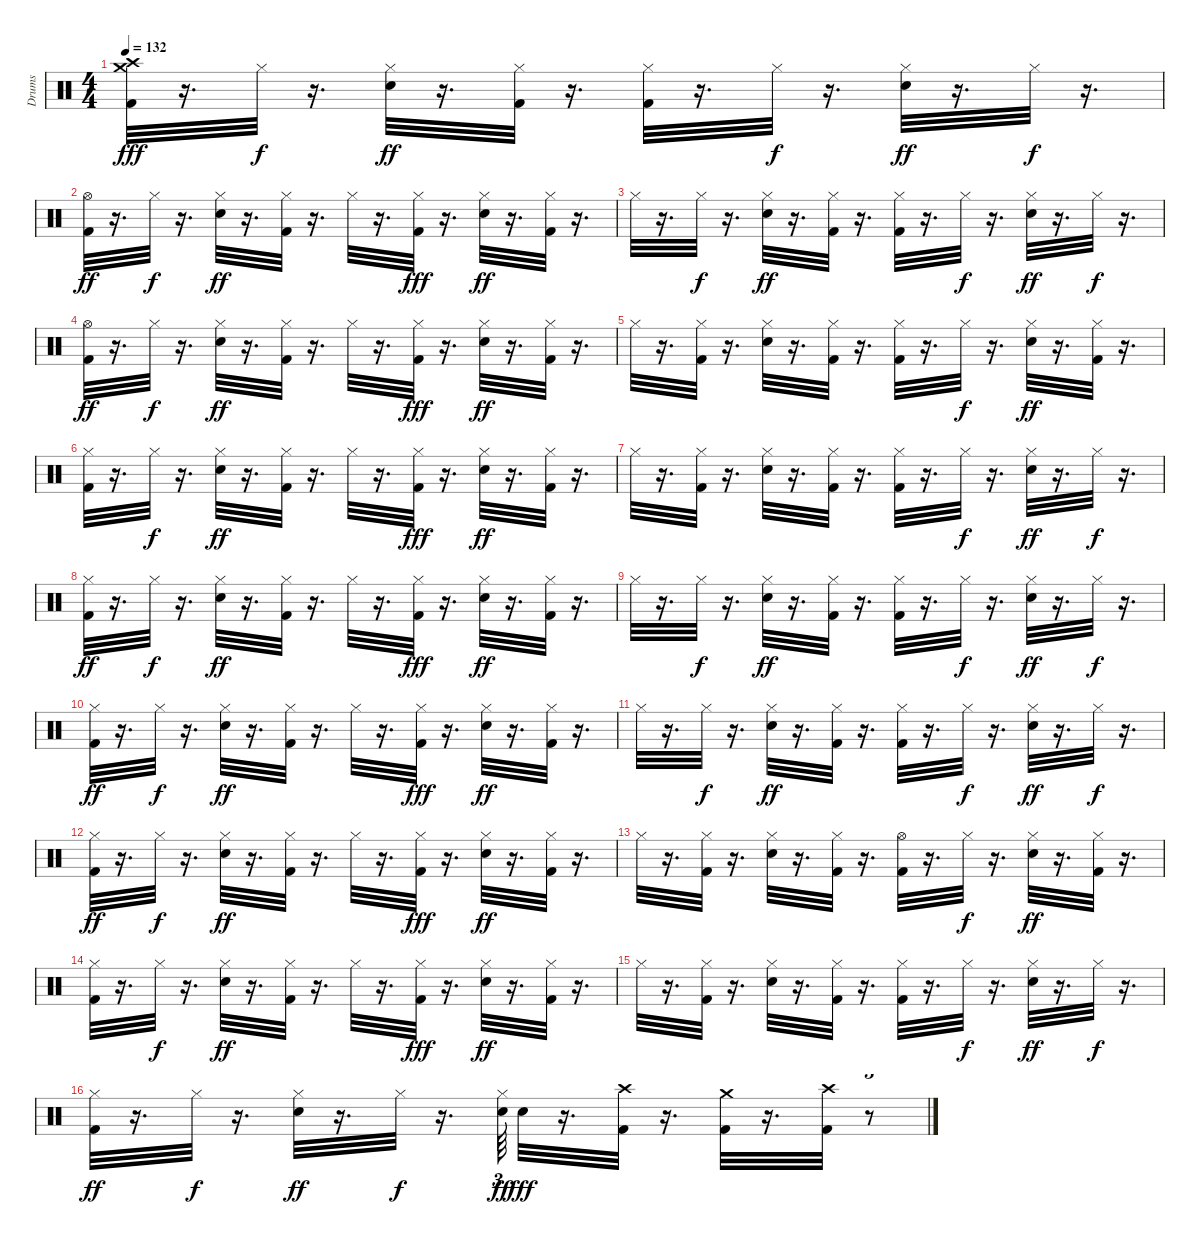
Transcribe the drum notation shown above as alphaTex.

\track ("Drums" "Drums") {instrument percussion}
\staff {score}
\articulation defaults
\ts (4 4)
\tempo 132
\clef neutral
\ks c
("Kick (hit) 2" "Crash high (hit)" "Crash medium (hit)").32{dy fff} r.16{d} "Hi-Hat (closed)".32{dy f} r.16{d} ("Snare (hit) 2" "Hi-Hat (closed)").32{dy ff} r.16{d} ("Kick (hit) 2" "Hi-Hat (closed)").32 r.16{d} ("Kick (hit) 2" "Hi-Hat (closed)").32 r.16{d} "Hi-Hat (closed)".32{dy f} r.16{d} ("Snare (hit) 2" "Hi-Hat (closed)").32{dy ff} r.16{d} "Hi-Hat (closed)".32{dy f} r.16{d} |
("Kick (hit) 2" "Hi-Hat (open)").32{dy ff} r.16{d} "Hi-Hat (closed)".32{dy f} r.16{d} ("Snare (hit) 2" "Hi-Hat (closed)").32{dy ff} r.16{d} ("Kick (hit) 2" "Hi-Hat (closed)").32 r.16{d} "Hi-Hat (closed)".32 r.16{d} ("Kick (hit) 2" "Hi-Hat (closed)").32{dy fff} r.16{d} ("Snare (hit) 2" "Hi-Hat (closed)").32{dy ff} r.16{d} ("Kick (hit) 2" "Hi-Hat (closed)").32 r.16{d} |
"Hi-Hat (closed)".32 r.16{d} "Hi-Hat (closed)".32{dy f} r.16{d} ("Snare (hit) 2" "Hi-Hat (closed)").32{dy ff} r.16{d} ("Kick (hit) 2" "Hi-Hat (closed)").32 r.16{d} ("Kick (hit) 2" "Hi-Hat (closed)").32 r.16{d} "Hi-Hat (closed)".32{dy f} r.16{d} ("Snare (hit) 2" "Hi-Hat (closed)").32{dy ff} r.16{d} "Hi-Hat (closed)".32{dy f} r.16{d} |
("Kick (hit) 2" "Hi-Hat (open)").32{dy ff} r.16{d} "Hi-Hat (closed)".32{dy f} r.16{d} ("Snare (hit) 2" "Hi-Hat (closed)").32{dy ff} r.16{d} ("Kick (hit) 2" "Hi-Hat (closed)").32 r.16{d} "Hi-Hat (closed)".32 r.16{d} ("Kick (hit) 2" "Hi-Hat (closed)").32{dy fff} r.16{d} ("Snare (hit) 2" "Hi-Hat (closed)").32{dy ff} r.16{d} ("Kick (hit) 2" "Hi-Hat (closed)").32 r.16{d} |
"Hi-Hat (closed)".32 r.16{d} ("Kick (hit) 2" "Hi-Hat (closed)").32 r.16{d} ("Snare (hit) 2" "Hi-Hat (closed)").32 r.16{d} ("Kick (hit) 2" "Hi-Hat (closed)").32 r.16{d} ("Kick (hit) 2" "Hi-Hat (closed)").32 r.16{d} "Hi-Hat (closed)".32{dy f} r.16{d} ("Snare (hit) 2" "Hi-Hat (closed)").32{dy ff} r.16{d} ("Kick (hit) 2" "Hi-Hat (closed)").32 r.16{d} |
("Kick (hit) 2" "Hi-Hat (closed)").32 r.16{d} "Hi-Hat (closed)".32{dy f} r.16{d} ("Snare (hit) 2" "Hi-Hat (closed)").32{dy ff} r.16{d} ("Kick (hit) 2" "Hi-Hat (closed)").32 r.16{d} "Hi-Hat (closed)".32 r.16{d} ("Kick (hit) 2" "Hi-Hat (closed)").32{dy fff} r.16{d} ("Snare (hit) 2" "Hi-Hat (closed)").32{dy ff} r.16{d} ("Kick (hit) 2" "Hi-Hat (closed)").32 r.16{d} |
"Hi-Hat (closed)".32 r.16{d} ("Kick (hit) 2" "Hi-Hat (closed)").32 r.16{d} ("Snare (hit) 2" "Hi-Hat (closed)").32 r.16{d} ("Kick (hit) 2" "Hi-Hat (closed)").32 r.16{d} ("Kick (hit) 2" "Hi-Hat (closed)").32 r.16{d} "Hi-Hat (closed)".32{dy f} r.16{d} ("Snare (hit) 2" "Hi-Hat (closed)").32{dy ff} r.16{d} "Hi-Hat (closed)".32{dy f} r.16{d} |
("Kick (hit) 2" "Hi-Hat (closed)").32{dy ff} r.16{d} "Hi-Hat (closed)".32{dy f} r.16{d} ("Snare (hit) 2" "Hi-Hat (closed)").32{dy ff} r.16{d} ("Kick (hit) 2" "Hi-Hat (closed)").32 r.16{d} "Hi-Hat (closed)".32 r.16{d} ("Kick (hit) 2" "Hi-Hat (closed)").32{dy fff} r.16{d} ("Snare (hit) 2" "Hi-Hat (closed)").32{dy ff} r.16{d} ("Kick (hit) 2" "Hi-Hat (closed)").32 r.16{d} |
"Hi-Hat (closed)".32 r.16{d} "Hi-Hat (closed)".32{dy f} r.16{d} ("Snare (hit) 2" "Hi-Hat (closed)").32{dy ff} r.16{d} ("Kick (hit) 2" "Hi-Hat (closed)").32 r.16{d} ("Kick (hit) 2" "Hi-Hat (closed)").32 r.16{d} "Hi-Hat (closed)".32{dy f} r.16{d} ("Snare (hit) 2" "Hi-Hat (closed)").32{dy ff} r.16{d} "Hi-Hat (closed)".32{dy f} r.16{d} |
("Kick (hit) 2" "Hi-Hat (closed)").32{dy ff} r.16{d} "Hi-Hat (closed)".32{dy f} r.16{d} ("Snare (hit) 2" "Hi-Hat (closed)").32{dy ff} r.16{d} ("Kick (hit) 2" "Hi-Hat (closed)").32 r.16{d} "Hi-Hat (closed)".32 r.16{d} ("Kick (hit) 2" "Hi-Hat (closed)").32{dy fff} r.16{d} ("Snare (hit) 2" "Hi-Hat (closed)").32{dy ff} r.16{d} ("Kick (hit) 2" "Hi-Hat (closed)").32 r.16{d} |
"Hi-Hat (closed)".32 r.16{d} "Hi-Hat (closed)".32{dy f} r.16{d} ("Snare (hit) 2" "Hi-Hat (closed)").32{dy ff} r.16{d} ("Kick (hit) 2" "Hi-Hat (closed)").32 r.16{d} ("Kick (hit) 2" "Hi-Hat (closed)").32 r.16{d} "Hi-Hat (closed)".32{dy f} r.16{d} ("Snare (hit) 2" "Hi-Hat (closed)").32{dy ff} r.16{d} "Hi-Hat (closed)".32{dy f} r.16{d} |
("Kick (hit) 2" "Hi-Hat (closed)").32{dy ff} r.16{d} "Hi-Hat (closed)".32{dy f} r.16{d} ("Snare (hit) 2" "Hi-Hat (closed)").32{dy ff} r.16{d} ("Kick (hit) 2" "Hi-Hat (closed)").32 r.16{d} "Hi-Hat (closed)".32 r.16{d} ("Kick (hit) 2" "Hi-Hat (closed)").32{dy fff} r.16{d} ("Snare (hit) 2" "Hi-Hat (closed)").32{dy ff} r.16{d} ("Kick (hit) 2" "Hi-Hat (closed)").32 r.16{d} |
"Hi-Hat (closed)".32 r.16{d} ("Kick (hit) 2" "Hi-Hat (closed)").32 r.16{d} ("Snare (hit) 2" "Hi-Hat (closed)").32 r.16{d} ("Kick (hit) 2" "Hi-Hat (closed)").32 r.16{d} ("Kick (hit) 2" "Hi-Hat (open)").32 r.16{d} "Hi-Hat (closed)".32{dy f} r.16{d} ("Snare (hit) 2" "Hi-Hat (closed)").32{dy ff} r.16{d} ("Kick (hit) 2" "Hi-Hat (closed)").32 r.16{d} |
("Kick (hit) 2" "Hi-Hat (closed)").32 r.16{d} "Hi-Hat (closed)".32{dy f} r.16{d} ("Snare (hit) 2" "Hi-Hat (closed)").32{dy ff} r.16{d} ("Kick (hit) 2" "Hi-Hat (closed)").32 r.16{d} "Hi-Hat (closed)".32 r.16{d} ("Kick (hit) 2" "Hi-Hat (closed)").32{dy fff} r.16{d} ("Snare (hit) 2" "Hi-Hat (closed)").32{dy ff} r.16{d} ("Kick (hit) 2" "Hi-Hat (closed)").32 r.16{d} |
"Hi-Hat (closed)".32 r.16{d} ("Kick (hit) 2" "Hi-Hat (closed)").32 r.16{d} ("Snare (hit) 2" "Hi-Hat (closed)").32 r.16{d} ("Kick (hit) 2" "Hi-Hat (closed)").32 r.16{d} ("Kick (hit) 2" "Hi-Hat (closed)").32 r.16{d} "Hi-Hat (closed)".32{dy f} r.16{d} ("Snare (hit) 2" "Hi-Hat (closed)").32{dy ff} r.16{d} "Hi-Hat (closed)".32{dy f} r.16{d} |
("Kick (hit) 2" "Hi-Hat (closed)").32{dy ff} r.16{d} "Hi-Hat (closed)".32{dy f} r.16{d} ("Snare (hit) 2" "Hi-Hat (closed)").32{dy ff} r.16{d} "Hi-Hat (closed)".32{dy f} r.16{d} ("Snare (hit) 2" "Hi-Hat (closed)").64{tu (3 2) dy ff} "Snare (hit) 2".32{dy fff} r.16{d} ("Kick (hit) 2" "Crash high (hit)").32 r.16{d} ("Kick (hit) 2" "Crash medium (hit)").32 r.16{d} ("Kick (hit) 2" "Crash high (hit)").32 r.8{tu (3 2)}
